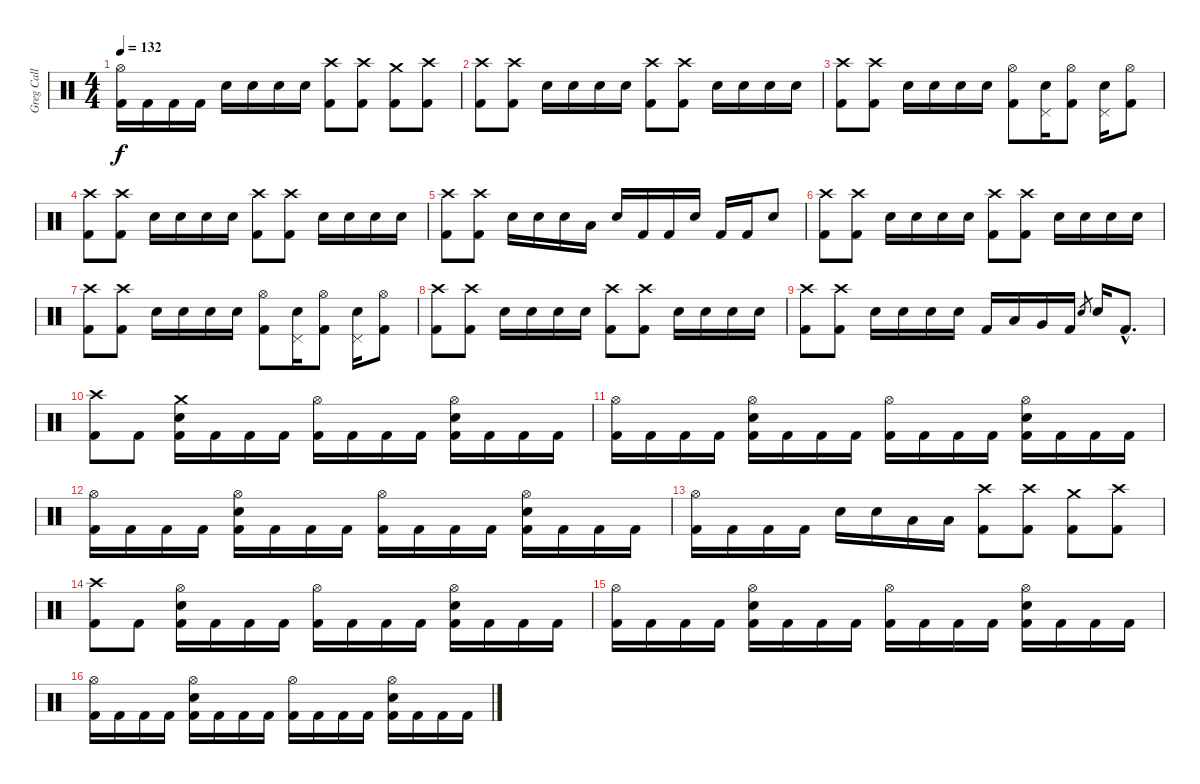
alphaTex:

\track ("Greg Call (Drums)" "Greg Call ") {instrument percussion}
\staff {score}
\articulation defaults
\ts (4 4)
\tempo 132
\clef neutral
\ks c
("Hi-Hat (open)" "Kick (hit) 2").16{dy f} "Kick (hit) 2".16 "Kick (hit) 2".16 "Kick (hit) 2".16 "Snare (hit) 2".16 "Snare (hit) 2".16 "Snare (hit) 2".16 "Snare (hit) 2".16 ("Crash high (hit)" "Kick (hit) 2").8 ("Crash high (hit)" "Kick (hit) 2").8 ("Crash medium (hit)" "Kick (hit) 2").8 ("Crash high (hit)" "Kick (hit) 2").8 |
("Crash high (hit)" "Kick (hit) 2").8 ("Crash high (hit)" "Kick (hit) 2").8 "Snare (hit) 2".16 "Snare (hit) 2".16 "Snare (hit) 2".16 "Snare (hit) 2".16 ("Crash high (hit)" "Kick (hit) 2").8 ("Crash high (hit)" "Kick (hit) 2").8 "Snare (hit) 2".16 "Snare (hit) 2".16 "Snare (hit) 2".16 "Snare (hit) 2".16 |
("Crash high (hit)" "Kick (hit) 2").8 ("Crash high (hit)" "Kick (hit) 2").8 "Snare (hit) 2".16 "Snare (hit) 2".16 "Snare (hit) 2".16 "Snare (hit) 2".16 ("Hi-Hat (open)" "Kick (hit) 2").8 ("Pedal Hi-Hat (hit)" "Snare (hit) 2").16 ("Hi-Hat (open)" "Kick (hit) 2").8 ("Pedal Hi-Hat (hit)" "Snare (hit) 2").16 ("Hi-Hat (open)" "Kick (hit) 2").8 |
("Crash high (hit)" "Kick (hit) 2").8 ("Crash high (hit)" "Kick (hit) 2").8 "Snare (hit) 2".16 "Snare (hit) 2".16 "Snare (hit) 2".16 "Snare (hit) 2".16 ("Crash high (hit)" "Kick (hit) 2").8 ("Crash high (hit)" "Kick (hit) 2").8 "Snare (hit) 2".16 "Snare (hit) 2".16 "Snare (hit) 2".16 "Snare (hit) 2".16 |
("Crash high (hit)" "Kick (hit) 2").8 ("Crash high (hit)" "Kick (hit) 2").8 "Snare (hit) 2".16 "Snare (hit) 2".16 "Snare (hit) 2".16 "Low Tom (hit)".16 "Snare (hit) 2".16 "Kick (hit) 2".16 "Kick (hit) 2".16 "Snare (hit) 2".16 "Kick (hit) 2".16 "Kick (hit) 2".16 "Snare (hit) 2".8 |
("Crash high (hit)" "Kick (hit) 2").8 ("Crash high (hit)" "Kick (hit) 2").8 "Snare (hit) 2".16 "Snare (hit) 2".16 "Snare (hit) 2".16 "Snare (hit) 2".16 ("Crash high (hit)" "Kick (hit) 2").8 ("Crash high (hit)" "Kick (hit) 2").8 "Snare (hit) 2".16 "Snare (hit) 2".16 "Snare (hit) 2".16 "Snare (hit) 2".16 |
("Crash high (hit)" "Kick (hit) 2").8 ("Crash high (hit)" "Kick (hit) 2").8 "Snare (hit) 2".16 "Snare (hit) 2".16 "Snare (hit) 2".16 "Snare (hit) 2".16 ("Hi-Hat (open)" "Kick (hit) 2").8 ("Pedal Hi-Hat (hit)" "Snare (hit) 2").16 ("Hi-Hat (open)" "Kick (hit) 2").8 ("Pedal Hi-Hat (hit)" "Snare (hit) 2").16 ("Hi-Hat (open)" "Kick (hit) 2").8 |
("Crash high (hit)" "Kick (hit) 2").8 ("Crash high (hit)" "Kick (hit) 2").8 "Snare (hit) 2".16 "Snare (hit) 2".16 "Snare (hit) 2".16 "Snare (hit) 2".16 ("Crash high (hit)" "Kick (hit) 2").8 ("Crash high (hit)" "Kick (hit) 2").8 "Snare (hit) 2".16 "Snare (hit) 2".16 "Snare (hit) 2".16 "Snare (hit) 2".16 |
("Crash high (hit)" "Kick (hit) 2").8 ("Crash high (hit)" "Kick (hit) 2").8 "Snare (hit) 2".16 "Snare (hit) 2".16 "Snare (hit) 2".16 "Snare (hit) 2".16 "Kick (hit) 2".16 "Low Tom (hit)".16 "Very Low Tom (hit)".16 "Kick (hit) 2".16 "Snare (hit) 2".8{gr} "Snare (hit) 2".16 "Kick (hit) 2"{hac}.8{d} |
("Crash high (hit)" "Kick (hit) 2").8 "Kick (hit) 2".8 ("Crash medium (hit)" "Snare (hit) 2" "Kick (hit) 2").16 "Kick (hit) 2".16 "Kick (hit) 2".16 "Kick (hit) 2".16 ("Hi-Hat (open)" "Kick (hit) 2").16 "Kick (hit) 2".16 "Kick (hit) 2".16 "Kick (hit) 2".16 ("Hi-Hat (open)" "Snare (hit) 2" "Kick (hit) 2").16 "Kick (hit) 2".16 "Kick (hit) 2".16 "Kick (hit) 2".16 |
("Hi-Hat (open)" "Kick (hit) 2").16 "Kick (hit) 2".16 "Kick (hit) 2".16 "Kick (hit) 2".16 ("Hi-Hat (open)" "Snare (hit) 2" "Kick (hit) 2").16 "Kick (hit) 2".16 "Kick (hit) 2".16 "Kick (hit) 2".16 ("Hi-Hat (open)" "Kick (hit) 2").16 "Kick (hit) 2".16 "Kick (hit) 2".16 "Kick (hit) 2".16 ("Hi-Hat (open)" "Snare (hit) 2" "Kick (hit) 2").16 "Kick (hit) 2".16 "Kick (hit) 2".16 "Kick (hit) 2".16 |
("Hi-Hat (open)" "Kick (hit) 2").16 "Kick (hit) 2".16 "Kick (hit) 2".16 "Kick (hit) 2".16 ("Hi-Hat (open)" "Snare (hit) 2" "Kick (hit) 2").16 "Kick (hit) 2".16 "Kick (hit) 2".16 "Kick (hit) 2".16 ("Hi-Hat (open)" "Kick (hit) 2").16 "Kick (hit) 2".16 "Kick (hit) 2".16 "Kick (hit) 2".16 ("Hi-Hat (open)" "Snare (hit) 2" "Kick (hit) 2").16 "Kick (hit) 2".16 "Kick (hit) 2".16 "Kick (hit) 2".16 |
("Hi-Hat (open)" "Kick (hit) 2").16 "Kick (hit) 2".16 "Kick (hit) 2".16 "Kick (hit) 2".16 "Snare (hit) 2".16 "Snare (hit) 2".16 "Low Tom (hit)".16 "Low Floor Tom (hit)".16 ("Crash high (hit)" "Kick (hit) 2").8 ("Crash high (hit)" "Kick (hit) 2").8 ("Crash medium (hit)" "Kick (hit) 2").8 ("Crash high (hit)" "Kick (hit) 2").8 |
("Crash high (hit)" "Kick (hit) 2").8 "Kick (hit) 2".8 ("Hi-Hat (open)" "Snare (hit) 2" "Kick (hit) 2").16 "Kick (hit) 2".16 "Kick (hit) 2".16 "Kick (hit) 2".16 ("Hi-Hat (open)" "Kick (hit) 2").16 "Kick (hit) 2".16 "Kick (hit) 2".16 "Kick (hit) 2".16 ("Hi-Hat (open)" "Snare (hit) 2" "Kick (hit) 2").16 "Kick (hit) 2".16 "Kick (hit) 2".16 "Kick (hit) 2".16 |
("Hi-Hat (open)" "Kick (hit) 2").16 "Kick (hit) 2".16 "Kick (hit) 2".16 "Kick (hit) 2".16 ("Hi-Hat (open)" "Snare (hit) 2" "Kick (hit) 2").16 "Kick (hit) 2".16 "Kick (hit) 2".16 "Kick (hit) 2".16 ("Hi-Hat (open)" "Kick (hit) 2").16 "Kick (hit) 2".16 "Kick (hit) 2".16 "Kick (hit) 2".16 ("Hi-Hat (open)" "Snare (hit) 2" "Kick (hit) 2").16 "Kick (hit) 2".16 "Kick (hit) 2".16 "Kick (hit) 2".16 |
("Hi-Hat (open)" "Kick (hit) 2").16 "Kick (hit) 2".16 "Kick (hit) 2".16 "Kick (hit) 2".16 ("Hi-Hat (open)" "Snare (hit) 2" "Kick (hit) 2").16 "Kick (hit) 2".16 "Kick (hit) 2".16 "Kick (hit) 2".16 ("Hi-Hat (open)" "Kick (hit) 2").16 "Kick (hit) 2".16 "Kick (hit) 2".16 "Kick (hit) 2".16 ("Hi-Hat (open)" "Snare (hit) 2" "Kick (hit) 2").16 "Kick (hit) 2".16 "Kick (hit) 2".16 "Kick (hit) 2".16
